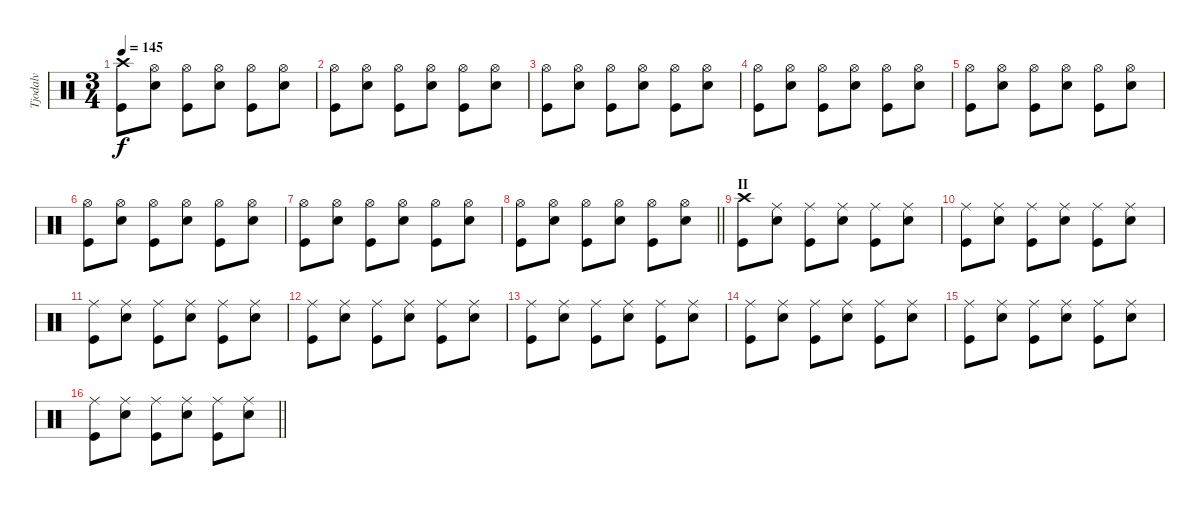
\track ("Tjodalv" "Tjodalv") {instrument percussion}
\staff {score}
\articulation defaults
\ts (3 4)
\tempo 145
\clef neutral
\ks c
("Crash high (hit)" "Kick (hit)").8{dy f} ("Hi-Hat (open)" "Snare (hit) 2").8 ("Hi-Hat (open)" "Kick (hit)").8 ("Hi-Hat (open)" "Snare (hit) 2").8 ("Hi-Hat (open)" "Kick (hit)").8 ("Hi-Hat (open)" "Snare (hit) 2").8 |
("Hi-Hat (open)" "Kick (hit)").8 ("Hi-Hat (open)" "Snare (hit) 2").8 ("Hi-Hat (open)" "Kick (hit)").8 ("Hi-Hat (open)" "Snare (hit) 2").8 ("Hi-Hat (open)" "Kick (hit)").8 ("Hi-Hat (open)" "Snare (hit) 2").8 |
("Hi-Hat (open)" "Kick (hit)").8 ("Hi-Hat (open)" "Snare (hit) 2").8 ("Hi-Hat (open)" "Kick (hit)").8 ("Hi-Hat (open)" "Snare (hit) 2").8 ("Hi-Hat (open)" "Kick (hit)").8 ("Hi-Hat (open)" "Snare (hit) 2").8 |
("Hi-Hat (open)" "Kick (hit)").8 ("Hi-Hat (open)" "Snare (hit) 2").8 ("Hi-Hat (open)" "Kick (hit)").8 ("Hi-Hat (open)" "Snare (hit) 2").8 ("Hi-Hat (open)" "Kick (hit)").8 ("Hi-Hat (open)" "Snare (hit) 2").8 |
("Hi-Hat (open)" "Kick (hit)").8 ("Hi-Hat (open)" "Snare (hit) 2").8 ("Hi-Hat (open)" "Kick (hit)").8 ("Hi-Hat (open)" "Snare (hit) 2").8 ("Hi-Hat (open)" "Kick (hit)").8 ("Hi-Hat (open)" "Snare (hit) 2").8 |
("Hi-Hat (open)" "Kick (hit)").8 ("Hi-Hat (open)" "Snare (hit) 2").8 ("Hi-Hat (open)" "Kick (hit)").8 ("Hi-Hat (open)" "Snare (hit) 2").8 ("Hi-Hat (open)" "Kick (hit)").8 ("Hi-Hat (open)" "Snare (hit) 2").8 |
("Hi-Hat (open)" "Kick (hit)").8 ("Hi-Hat (open)" "Snare (hit) 2").8 ("Hi-Hat (open)" "Kick (hit)").8 ("Hi-Hat (open)" "Snare (hit) 2").8 ("Hi-Hat (open)" "Kick (hit)").8 ("Hi-Hat (open)" "Snare (hit) 2").8 |
\barLineRight lightlight
("Hi-Hat (open)" "Kick (hit)").8 ("Hi-Hat (open)" "Snare (hit) 2").8 ("Hi-Hat (open)" "Kick (hit)").8 ("Hi-Hat (open)" "Snare (hit) 2").8 ("Hi-Hat (open)" "Kick (hit)").8 ("Hi-Hat (open)" "Snare (hit) 2").8 |
\section ("" "II")
("Crash high (hit)" "Kick (hit)").8 ("Ride (middle)" "Snare (hit) 2").8 ("Ride (middle)" "Kick (hit)").8 ("Ride (middle)" "Snare (hit) 2").8 ("Ride (middle)" "Kick (hit)").8 ("Ride (middle)" "Snare (hit) 2").8 |
("Ride (middle)" "Kick (hit)").8 ("Ride (middle)" "Snare (hit) 2").8 ("Ride (middle)" "Kick (hit)").8 ("Ride (middle)" "Snare (hit) 2").8 ("Ride (middle)" "Kick (hit)").8 ("Ride (middle)" "Snare (hit) 2").8 |
("Ride (middle)" "Kick (hit)").8 ("Ride (middle)" "Snare (hit) 2").8 ("Ride (middle)" "Kick (hit)").8 ("Ride (middle)" "Snare (hit) 2").8 ("Ride (middle)" "Kick (hit)").8 ("Ride (middle)" "Snare (hit) 2").8 |
("Ride (middle)" "Kick (hit)").8 ("Ride (middle)" "Snare (hit) 2").8 ("Ride (middle)" "Kick (hit)").8 ("Ride (middle)" "Snare (hit) 2").8 ("Ride (middle)" "Kick (hit)").8 ("Ride (middle)" "Snare (hit) 2").8 |
("Ride (middle)" "Kick (hit)").8 ("Ride (middle)" "Snare (hit) 2").8 ("Ride (middle)" "Kick (hit)").8 ("Ride (middle)" "Snare (hit) 2").8 ("Ride (middle)" "Kick (hit)").8 ("Ride (middle)" "Snare (hit) 2").8 |
("Ride (middle)" "Kick (hit)").8 ("Ride (middle)" "Snare (hit) 2").8 ("Ride (middle)" "Kick (hit)").8 ("Ride (middle)" "Snare (hit) 2").8 ("Ride (middle)" "Kick (hit)").8 ("Ride (middle)" "Snare (hit) 2").8 |
("Ride (middle)" "Kick (hit)").8 ("Ride (middle)" "Snare (hit) 2").8 ("Ride (middle)" "Kick (hit)").8 ("Ride (middle)" "Snare (hit) 2").8 ("Ride (middle)" "Kick (hit)").8 ("Ride (middle)" "Snare (hit) 2").8 |
\barLineRight lightlight
("Ride (middle)" "Kick (hit)").8 ("Ride (middle)" "Snare (hit) 2").8 ("Ride (middle)" "Kick (hit)").8 ("Ride (middle)" "Snare (hit) 2").8 ("Ride (middle)" "Kick (hit)").8 ("Ride (middle)" "Snare (hit) 2").8
